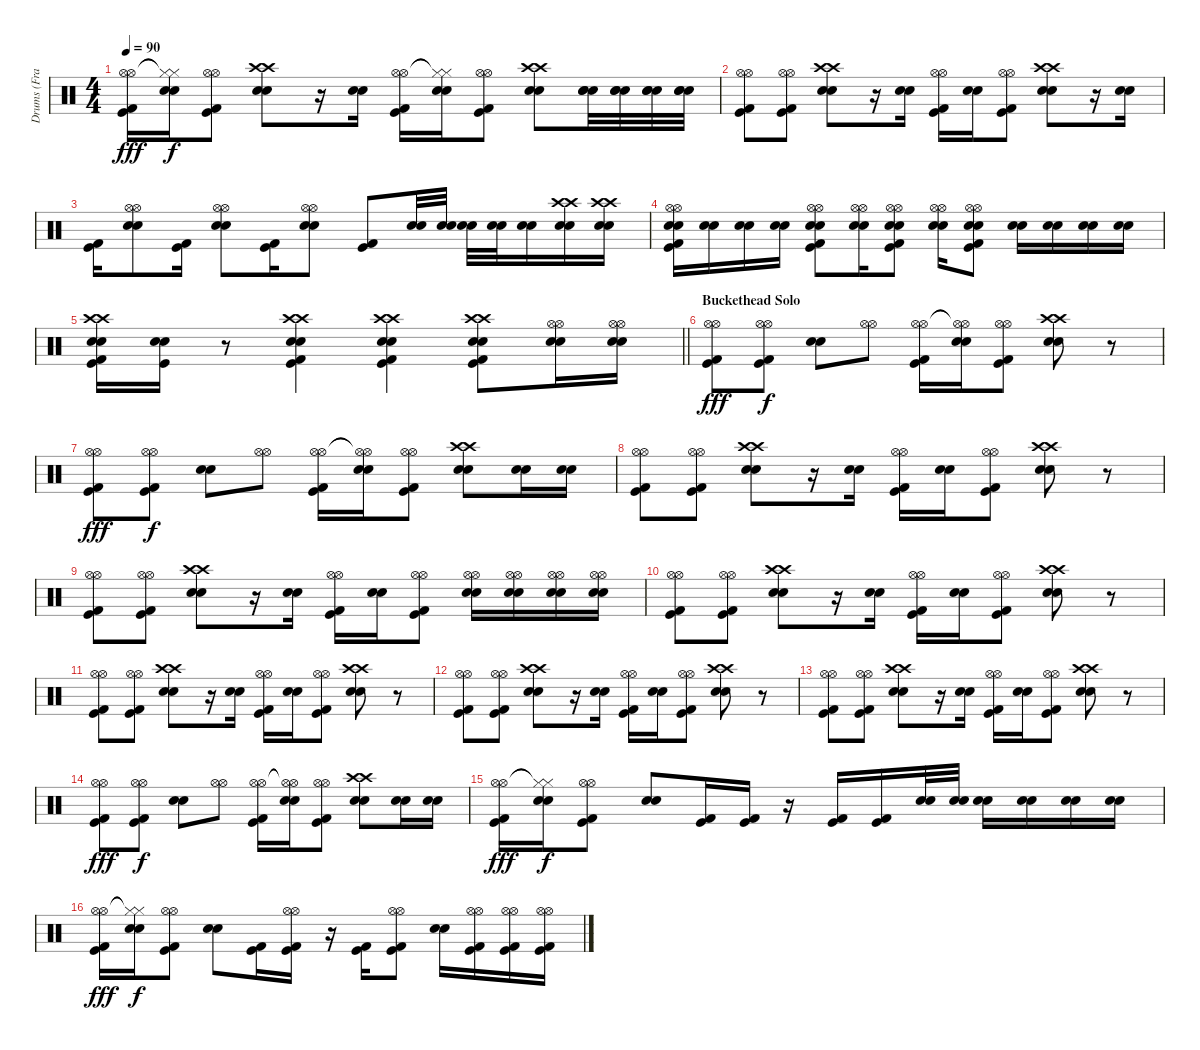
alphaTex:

\track ("Drums (Frank Ferrer)" "Drums (Fra") {instrument percussion}
\staff {score}
\articulation defaults
\ts (4 4)
\tempo 90
\clef neutral
\ks c
("Hi-Hat (open)" "Hi-Hat (open)" "Kick (hit)" "Kick (hit) 2").16{dy fff} ("Hi-Hat (closed)"{t} "Hi-Hat (closed)"{t} "Snare (hit) 2" "Snare (hit) 2").16{dy f} ("Hi-Hat (open)" "Hi-Hat (open)" "Kick (hit)" "Kick (hit) 2").8 ("Crash high (hit)" "Crash high (hit)" "Snare (hit) 2" "Snare (hit) 2").8 r.16 ("Snare (hit) 2" "Snare (hit) 2").16 ("Hi-Hat (open)" "Hi-Hat (open)" "Kick (hit)" "Kick (hit) 2").16 ("Hi-Hat (closed)"{t} "Hi-Hat (closed)"{t} "Snare (hit) 2" "Snare (hit) 2").16 ("Hi-Hat (open)" "Hi-Hat (open)" "Kick (hit)" "Kick (hit) 2").8 ("Crash high (hit)" "Crash high (hit)" "Snare (hit) 2" "Snare (hit) 2").8 ("Snare (hit) 2" "Snare (hit) 2" "Snare (hit) 2").32 ("Snare (hit) 2" "Snare (hit) 2" "Snare (hit) 2").32 ("Snare (hit) 2" "Snare (hit) 2" "Snare (hit) 2").32 ("Snare (hit) 2" "Snare (hit) 2" "Snare (hit) 2").32 |
("Hi-Hat (open)" "Hi-Hat (open)" "Kick (hit)" "Kick (hit) 2").8 ("Hi-Hat (open)" "Hi-Hat (open)" "Kick (hit)" "Kick (hit) 2").8 ("Crash high (hit)" "Crash high (hit)" "Snare (hit) 2" "Snare (hit) 2").8 r.16 ("Snare (hit) 2" "Snare (hit) 2").16 ("Hi-Hat (open)" "Hi-Hat (open)" "Kick (hit)" "Kick (hit) 2").16 ("Snare (hit) 2" "Snare (hit) 2").16 ("Hi-Hat (open)" "Hi-Hat (open)" "Kick (hit)" "Kick (hit) 2").8 ("Crash high (hit)" "Crash high (hit)" "Snare (hit) 2" "Snare (hit) 2").8 r.16 ("Snare (hit) 2" "Snare (hit) 2").16 |
("Kick (hit)" "Kick (hit) 2").16 ("Hi-Hat (open)" "Hi-Hat (open)" "Snare (hit) 2" "Snare (hit) 2").8 ("Kick (hit)" "Kick (hit) 2").16 ("Hi-Hat (open)" "Hi-Hat (open)" "Snare (hit) 2" "Snare (hit) 2").8 ("Kick (hit)" "Kick (hit) 2").16 ("Hi-Hat (open)" "Hi-Hat (open)" "Snare (hit) 2" "Snare (hit) 2").8 ("Kick (hit)" "Kick (hit) 2").8 ("Snare (hit) 2" "Snare (hit) 2").32 ("Snare (hit) 2" "Snare (hit) 2").32 ("Snare (hit) 2" "Snare (hit) 2").32 ("Snare (hit) 2" "Snare (hit) 2").32 ("Snare (hit) 2" "Snare (hit) 2").16 ("Crash high (hit)" "Crash high (hit)" "Snare (hit) 2" "Snare (hit) 2").16 ("Crash high (hit)" "Crash high (hit)" "Snare (hit) 2" "Snare (hit) 2").16 |
("Hi-Hat (open)" "Hi-Hat (open)" "Snare (hit) 2" "Snare (hit) 2" "Kick (hit)" "Kick (hit) 2").16 ("Snare (hit) 2" "Snare (hit) 2").16 ("Snare (hit) 2" "Snare (hit) 2").16 ("Snare (hit) 2" "Snare (hit) 2").16 ("Hi-Hat (open)" "Hi-Hat (open)" "Snare (hit) 2" "Snare (hit) 2" "Kick (hit)" "Kick (hit) 2").8 ("Hi-Hat (open)" "Hi-Hat (open)" "Snare (hit) 2" "Snare (hit) 2").16 ("Hi-Hat (open)" "Hi-Hat (open)" "Snare (hit) 2" "Snare (hit) 2" "Kick (hit)" "Kick (hit) 2").8 ("Hi-Hat (open)" "Hi-Hat (open)" "Snare (hit) 2" "Snare (hit) 2").16 ("Hi-Hat (open)" "Hi-Hat (open)" "Snare (hit) 2" "Snare (hit) 2" "Kick (hit)" "Kick (hit) 2").8 ("Snare (hit) 2" "Snare (hit) 2").16 ("Snare (hit) 2" "Snare (hit) 2").16 ("Snare (hit) 2" "Snare (hit) 2").16 ("Snare (hit) 2" "Snare (hit) 2").16 |
\barLineRight lightlight
("Crash high (hit)" "Crash high (hit)" "Snare (hit) 2" "Snare (hit) 2" "Kick (hit)" "Kick (hit) 2").16 ("Snare (hit) 2" "Snare (hit) 2" "Kick (hit)").16 r.8 ("Crash high (hit)" "Crash high (hit)" "Snare (hit) 2" "Snare (hit) 2" "Kick (hit)" "Kick (hit) 2").4 ("Crash high (hit)" "Crash high (hit)" "Snare (hit) 2" "Snare (hit) 2" "Kick (hit)" "Kick (hit) 2").4 ("Crash high (hit)" "Crash high (hit)" "Snare (hit) 2" "Snare (hit) 2" "Kick (hit)" "Kick (hit) 2").8 ("Hi-Hat (open)" "Hi-Hat (open)" "Snare (hit) 2" "Snare (hit) 2").16 ("Hi-Hat (open)" "Hi-Hat (open)" "Snare (hit) 2" "Snare (hit) 2").16 |
\section ("" "Buckethead Solo")
("Hi-Hat (open)" "Hi-Hat (open)" "Kick (hit)" "Kick (hit) 2").8{dy fff} ("Hi-Hat (open)" "Hi-Hat (open)" "Kick (hit)" "Kick (hit) 2").8{dy f} ("Snare (hit) 2" "Snare (hit) 2").8 ("Hi-Hat (open)" "Hi-Hat (open)").8 ("Hi-Hat (open)" "Hi-Hat (open)" "Kick (hit)" "Kick (hit) 2").16 ("Hi-Hat (open)"{t} "Hi-Hat (open)"{t} "Snare (hit) 2" "Snare (hit) 2").16 ("Hi-Hat (open)" "Hi-Hat (open)" "Kick (hit)" "Kick (hit) 2").8 ("Crash high (hit)" "Crash high (hit)" "Snare (hit) 2" "Snare (hit) 2").8 r.8 |
("Hi-Hat (open)" "Hi-Hat (open)" "Kick (hit)" "Kick (hit) 2").8{dy fff} ("Hi-Hat (open)" "Hi-Hat (open)" "Kick (hit)" "Kick (hit) 2").8{dy f} ("Snare (hit) 2" "Snare (hit) 2").8 ("Hi-Hat (open)" "Hi-Hat (open)").8 ("Hi-Hat (open)" "Hi-Hat (open)" "Kick (hit)" "Kick (hit) 2").16 ("Hi-Hat (open)"{t} "Hi-Hat (open)"{t} "Snare (hit) 2" "Snare (hit) 2").16 ("Hi-Hat (open)" "Hi-Hat (open)" "Kick (hit)" "Kick (hit) 2").8 ("Crash high (hit)" "Crash high (hit)" "Snare (hit) 2" "Snare (hit) 2").8 ("Snare (hit) 2" "Snare (hit) 2").16 ("Snare (hit) 2" "Snare (hit) 2").16 |
("Hi-Hat (open)" "Hi-Hat (open)" "Kick (hit)" "Kick (hit) 2").8 ("Hi-Hat (open)" "Hi-Hat (open)" "Kick (hit)" "Kick (hit) 2").8 ("Crash high (hit)" "Crash high (hit)" "Snare (hit) 2" "Snare (hit) 2").8 r.16 ("Snare (hit) 2" "Snare (hit) 2").16 ("Hi-Hat (open)" "Hi-Hat (open)" "Kick (hit)" "Kick (hit) 2").16 ("Snare (hit) 2" "Snare (hit) 2").16 ("Hi-Hat (open)" "Hi-Hat (open)" "Kick (hit)" "Kick (hit) 2").8 ("Crash high (hit)" "Crash high (hit)" "Snare (hit) 2" "Snare (hit) 2").8 r.8 |
("Hi-Hat (open)" "Hi-Hat (open)" "Kick (hit)" "Kick (hit) 2").8 ("Hi-Hat (open)" "Hi-Hat (open)" "Kick (hit)" "Kick (hit) 2").8 ("Crash high (hit)" "Crash high (hit)" "Snare (hit) 2" "Snare (hit) 2").8 r.16 ("Snare (hit) 2" "Snare (hit) 2").16 ("Hi-Hat (open)" "Hi-Hat (open)" "Kick (hit)" "Kick (hit) 2").16 ("Snare (hit) 2" "Snare (hit) 2").16 ("Hi-Hat (open)" "Hi-Hat (open)" "Kick (hit)" "Kick (hit) 2").8 ("Hi-Hat (open)" "Hi-Hat (open)" "Snare (hit) 2" "Snare (hit) 2").16 ("Hi-Hat (open)" "Hi-Hat (open)" "Snare (hit) 2" "Snare (hit) 2").16 ("Hi-Hat (open)" "Hi-Hat (open)" "Snare (hit) 2" "Snare (hit) 2").16 ("Hi-Hat (open)" "Hi-Hat (open)" "Snare (hit) 2" "Snare (hit) 2").16 |
("Hi-Hat (open)" "Hi-Hat (open)" "Kick (hit)" "Kick (hit) 2").8 ("Hi-Hat (open)" "Hi-Hat (open)" "Kick (hit)" "Kick (hit) 2").8 ("Crash high (hit)" "Crash high (hit)" "Snare (hit) 2" "Snare (hit) 2").8 r.16 ("Snare (hit) 2" "Snare (hit) 2").16 ("Hi-Hat (open)" "Hi-Hat (open)" "Kick (hit)" "Kick (hit) 2").16 ("Snare (hit) 2" "Snare (hit) 2").16 ("Hi-Hat (open)" "Hi-Hat (open)" "Kick (hit)" "Kick (hit) 2").8 ("Crash high (hit)" "Crash high (hit)" "Snare (hit) 2" "Snare (hit) 2").8 r.8 |
("Hi-Hat (open)" "Hi-Hat (open)" "Kick (hit)" "Kick (hit) 2").8 ("Hi-Hat (open)" "Hi-Hat (open)" "Kick (hit)" "Kick (hit) 2").8 ("Crash high (hit)" "Crash high (hit)" "Snare (hit) 2" "Snare (hit) 2").8 r.16 ("Snare (hit) 2" "Snare (hit) 2").16 ("Hi-Hat (open)" "Hi-Hat (open)" "Kick (hit)" "Kick (hit) 2").16 ("Snare (hit) 2" "Snare (hit) 2").16 ("Hi-Hat (open)" "Hi-Hat (open)" "Kick (hit)" "Kick (hit) 2").8 ("Crash high (hit)" "Crash high (hit)" "Snare (hit) 2" "Snare (hit) 2").8 r.8 |
("Hi-Hat (open)" "Hi-Hat (open)" "Kick (hit)" "Kick (hit) 2").8 ("Hi-Hat (open)" "Hi-Hat (open)" "Kick (hit)" "Kick (hit) 2").8 ("Crash high (hit)" "Crash high (hit)" "Snare (hit) 2" "Snare (hit) 2").8 r.16 ("Snare (hit) 2" "Snare (hit) 2").16 ("Hi-Hat (open)" "Hi-Hat (open)" "Kick (hit)" "Kick (hit) 2").16 ("Snare (hit) 2" "Snare (hit) 2").16 ("Hi-Hat (open)" "Hi-Hat (open)" "Kick (hit)" "Kick (hit) 2").8 ("Crash high (hit)" "Crash high (hit)" "Snare (hit) 2" "Snare (hit) 2").8 r.8 |
("Hi-Hat (open)" "Hi-Hat (open)" "Kick (hit)" "Kick (hit) 2").8 ("Hi-Hat (open)" "Hi-Hat (open)" "Kick (hit)" "Kick (hit) 2").8 ("Crash high (hit)" "Crash high (hit)" "Snare (hit) 2" "Snare (hit) 2").8 r.16 ("Snare (hit) 2" "Snare (hit) 2").16 ("Hi-Hat (open)" "Hi-Hat (open)" "Kick (hit)" "Kick (hit) 2").16 ("Snare (hit) 2" "Snare (hit) 2").16 ("Hi-Hat (open)" "Hi-Hat (open)" "Kick (hit)" "Kick (hit) 2").8 ("Crash high (hit)" "Crash high (hit)" "Snare (hit) 2" "Snare (hit) 2").8 r.8 |
("Hi-Hat (open)" "Hi-Hat (open)" "Kick (hit)" "Kick (hit) 2").8{dy fff} ("Hi-Hat (open)" "Hi-Hat (open)" "Kick (hit)" "Kick (hit) 2").8{dy f} ("Snare (hit) 2" "Snare (hit) 2").8 ("Hi-Hat (open)" "Hi-Hat (open)").8 ("Hi-Hat (open)" "Hi-Hat (open)" "Kick (hit)" "Kick (hit) 2").16 ("Hi-Hat (open)"{t} "Hi-Hat (open)"{t} "Snare (hit) 2" "Snare (hit) 2").16 ("Hi-Hat (open)" "Hi-Hat (open)" "Kick (hit)" "Kick (hit) 2").8 ("Crash high (hit)" "Crash high (hit)" "Snare (hit) 2" "Snare (hit) 2").8 ("Snare (hit) 2" "Snare (hit) 2").16 ("Snare (hit) 2" "Snare (hit) 2").16 |
("Hi-Hat (open)" "Hi-Hat (open)" "Kick (hit)" "Kick (hit) 2").16{dy fff} ("Hi-Hat (closed)"{t} "Hi-Hat (closed)"{t} "Snare (hit) 2" "Snare (hit) 2").16{dy f} ("Hi-Hat (open)" "Hi-Hat (open)" "Kick (hit)" "Kick (hit) 2").8 ("Snare (hit) 2" "Snare (hit) 2").8 ("Kick (hit)" "Kick (hit) 2").16 ("Kick (hit)" "Kick (hit) 2").16 r.16 ("Kick (hit)" "Kick (hit) 2").16 ("Kick (hit)" "Kick (hit) 2").16 ("Snare (hit) 2" "Snare (hit) 2").32 ("Snare (hit) 2" "Snare (hit) 2").32 ("Snare (hit) 2" "Snare (hit) 2").16 ("Snare (hit) 2" "Snare (hit) 2").16 ("Snare (hit) 2" "Snare (hit) 2").16 ("Snare (hit) 2" "Snare (hit) 2").16 |
("Hi-Hat (open)" "Hi-Hat (open)" "Kick (hit)" "Kick (hit) 2").16{dy fff} ("Hi-Hat (closed)"{t} "Hi-Hat (closed)"{t} "Snare (hit) 2" "Snare (hit) 2").16{dy f} ("Hi-Hat (open)" "Hi-Hat (open)" "Kick (hit)" "Kick (hit) 2").8 ("Snare (hit) 2" "Snare (hit) 2").8 ("Kick (hit)" "Kick (hit) 2").16 ("Hi-Hat (open)" "Hi-Hat (open)" "Kick (hit)" "Kick (hit) 2").16 r.16 ("Kick (hit)" "Kick (hit) 2").16 ("Hi-Hat (open)" "Hi-Hat (open)" "Kick (hit)" "Kick (hit) 2").8 ("Snare (hit) 2" "Snare (hit) 2").16 ("Hi-Hat (open)" "Hi-Hat (open)" "Kick (hit)" "Kick (hit) 2").16 ("Hi-Hat (open)" "Hi-Hat (open)" "Kick (hit)" "Kick (hit) 2").16 ("Hi-Hat (open)" "Hi-Hat (open)" "Kick (hit)" "Kick (hit) 2").16
